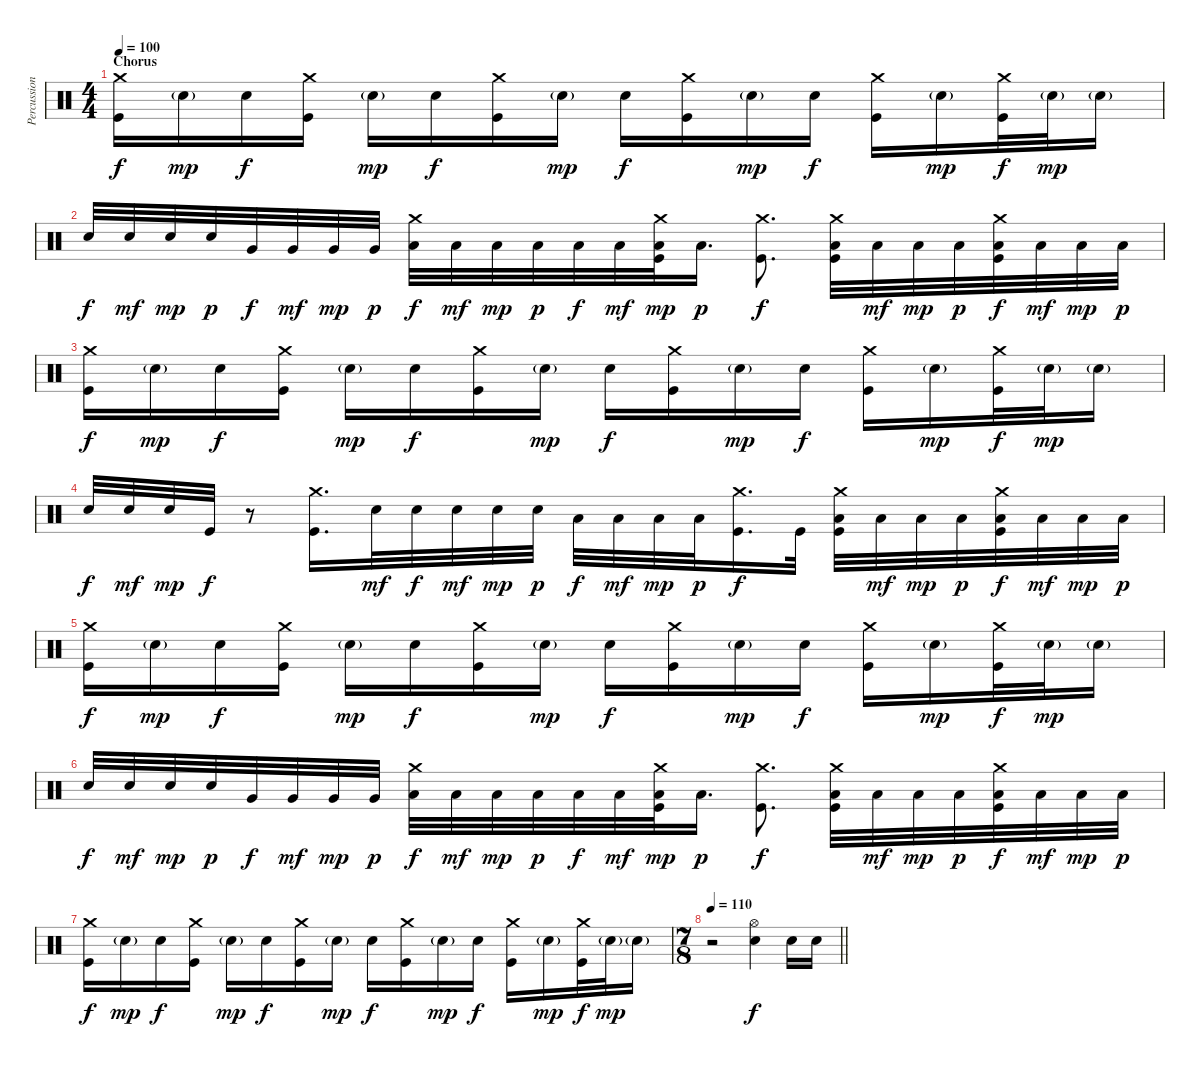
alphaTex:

\track ("Percussion" "Percussion") {instrument percussion}
\staff {score}
\articulation defaults
\ts (4 4)
\section ("" "Chorus")
\tempo 100
\clef neutral
\ks c
("Crash medium (hit)" "Kick (hit)").16{dy f} "Snare (hit) 2"{g}.16{dy mp} "Snare (hit) 2".16{dy f} ("Crash medium (hit)" "Kick (hit)").16 "Snare (hit) 2"{g}.16{dy mp} "Snare (hit) 2".16{dy f} ("Crash medium (hit)" "Kick (hit)").16 "Snare (hit) 2"{g}.16{dy mp} "Snare (hit) 2".16{dy f} ("Crash medium (hit)" "Kick (hit)").16 "Snare (hit) 2"{g}.16{dy mp} "Snare (hit) 2".16{dy f} ("Crash medium (hit)" "Kick (hit)").16 "Snare (hit) 2"{g}.16{dy mp} ("Crash medium (hit)" "Kick (hit)").32{dy f} "Snare (hit) 2"{g}.32{dy mp} "Snare (hit) 2"{g}.16 |
"Snare (hit) 2".32{dy f} "Snare (hit) 2".32{dy mf} "Snare (hit) 2".32{dy mp} "Snare (hit) 2".32{dy p} "Very Low Tom (hit)".32{dy f} "Very Low Tom (hit)".32{dy mf} "Very Low Tom (hit)".32{dy mp} "Very Low Tom (hit)".32{dy p} ("Crash medium (hit)" "Low Floor Tom (hit)").32{dy f} "Low Floor Tom (hit)".32{dy mf} "Low Floor Tom (hit)".32{dy mp} "Low Floor Tom (hit)".32{dy p} "Low Floor Tom (hit)".32{dy f} "Low Floor Tom (hit)".32{dy mf} ("Crash medium (hit)" "Low Floor Tom (hit)" "Kick (hit)").32{dy mp} "Low Floor Tom (hit)".16{d dy p} ("Crash medium (hit)" "Kick (hit)").8{d dy f} ("Crash medium (hit)" "Low Floor Tom (hit)" "Kick (hit)").32 "Low Floor Tom (hit)".32{dy mf} "Low Floor Tom (hit)".32{dy mp} "Low Floor Tom (hit)".32{dy p} ("Crash medium (hit)" "Low Floor Tom (hit)" "Kick (hit)").32{dy f} "Low Floor Tom (hit)".32{dy mf} "Low Floor Tom (hit)".32{dy mp} "Low Floor Tom (hit)".32{dy p} |
("Crash medium (hit)" "Kick (hit)").16{dy f} "Snare (hit) 2"{g}.16{dy mp} "Snare (hit) 2".16{dy f} ("Crash medium (hit)" "Kick (hit)").16 "Snare (hit) 2"{g}.16{dy mp} "Snare (hit) 2".16{dy f} ("Crash medium (hit)" "Kick (hit)").16 "Snare (hit) 2"{g}.16{dy mp} "Snare (hit) 2".16{dy f} ("Crash medium (hit)" "Kick (hit)").16 "Snare (hit) 2"{g}.16{dy mp} "Snare (hit) 2".16{dy f} ("Crash medium (hit)" "Kick (hit)").16 "Snare (hit) 2"{g}.16{dy mp} ("Crash medium (hit)" "Kick (hit)").32{dy f} "Snare (hit) 2"{g}.32{dy mp} "Snare (hit) 2"{g}.16 |
"Snare (hit) 2".32{dy f} "Snare (hit) 2".32{dy mf} "Snare (hit) 2".32{dy mp} "Kick (hit)".32{dy f} r.8 ("Crash medium (hit)" "Kick (hit)").16{d} "Snare (hit) 2".32{dy mf} "Snare (hit) 2".32{dy f} "Snare (hit) 2".32{dy mf} "Snare (hit) 2".32{dy mp} "Snare (hit) 2".32{dy p} "Low Floor Tom (hit)".32{dy f} "Low Floor Tom (hit)".32{dy mf} "Low Floor Tom (hit)".32{dy mp} "Low Floor Tom (hit)".32{dy p} ("Crash medium (hit)" "Kick (hit)").16{d dy f} "Kick (hit)".32 ("Crash medium (hit)" "Low Floor Tom (hit)" "Kick (hit)").32 "Low Floor Tom (hit)".32{dy mf} "Low Floor Tom (hit)".32{dy mp} "Low Floor Tom (hit)".32{dy p} ("Crash medium (hit)" "Low Floor Tom (hit)" "Kick (hit)").32{dy f} "Low Floor Tom (hit)".32{dy mf} "Low Floor Tom (hit)".32{dy mp} "Low Floor Tom (hit)".32{dy p} |
("Crash medium (hit)" "Kick (hit)").16{dy f} "Snare (hit) 2"{g}.16{dy mp} "Snare (hit) 2".16{dy f} ("Crash medium (hit)" "Kick (hit)").16 "Snare (hit) 2"{g}.16{dy mp} "Snare (hit) 2".16{dy f} ("Crash medium (hit)" "Kick (hit)").16 "Snare (hit) 2"{g}.16{dy mp} "Snare (hit) 2".16{dy f} ("Crash medium (hit)" "Kick (hit)").16 "Snare (hit) 2"{g}.16{dy mp} "Snare (hit) 2".16{dy f} ("Crash medium (hit)" "Kick (hit)").16 "Snare (hit) 2"{g}.16{dy mp} ("Crash medium (hit)" "Kick (hit)").32{dy f} "Snare (hit) 2"{g}.32{dy mp} "Snare (hit) 2"{g}.16 |
"Snare (hit) 2".32{dy f} "Snare (hit) 2".32{dy mf} "Snare (hit) 2".32{dy mp} "Snare (hit) 2".32{dy p} "Very Low Tom (hit)".32{dy f} "Very Low Tom (hit)".32{dy mf} "Very Low Tom (hit)".32{dy mp} "Very Low Tom (hit)".32{dy p} ("Crash medium (hit)" "Low Floor Tom (hit)").32{dy f} "Low Floor Tom (hit)".32{dy mf} "Low Floor Tom (hit)".32{dy mp} "Low Floor Tom (hit)".32{dy p} "Low Floor Tom (hit)".32{dy f} "Low Floor Tom (hit)".32{dy mf} ("Crash medium (hit)" "Low Floor Tom (hit)" "Kick (hit)").32{dy mp} "Low Floor Tom (hit)".16{d dy p} ("Crash medium (hit)" "Kick (hit)").8{d dy f} ("Crash medium (hit)" "Low Floor Tom (hit)" "Kick (hit)").32 "Low Floor Tom (hit)".32{dy mf} "Low Floor Tom (hit)".32{dy mp} "Low Floor Tom (hit)".32{dy p} ("Crash medium (hit)" "Low Floor Tom (hit)" "Kick (hit)").32{dy f} "Low Floor Tom (hit)".32{dy mf} "Low Floor Tom (hit)".32{dy mp} "Low Floor Tom (hit)".32{dy p} |
("Crash medium (hit)" "Kick (hit)").16{dy f} "Snare (hit) 2"{g}.16{dy mp} "Snare (hit) 2".16{dy f} ("Crash medium (hit)" "Kick (hit)").16 "Snare (hit) 2"{g}.16{dy mp} "Snare (hit) 2".16{dy f} ("Crash medium (hit)" "Kick (hit)").16 "Snare (hit) 2"{g}.16{dy mp} "Snare (hit) 2".16{dy f} ("Crash medium (hit)" "Kick (hit)").16 "Snare (hit) 2"{g}.16{dy mp} "Snare (hit) 2".16{dy f} ("Crash medium (hit)" "Kick (hit)").16 "Snare (hit) 2"{g}.16{dy mp} ("Crash medium (hit)" "Kick (hit)").32{dy f} "Snare (hit) 2"{g}.32{dy mp} "Snare (hit) 2"{g}.16 |
\ts (7 8)
\tempo 110
\barLineRight lightlight
r.2 ("Hi-Hat (open)" "Snare (hit) 2").4{dy f} "Snare (hit) 2".16 "Snare (hit) 2".16
